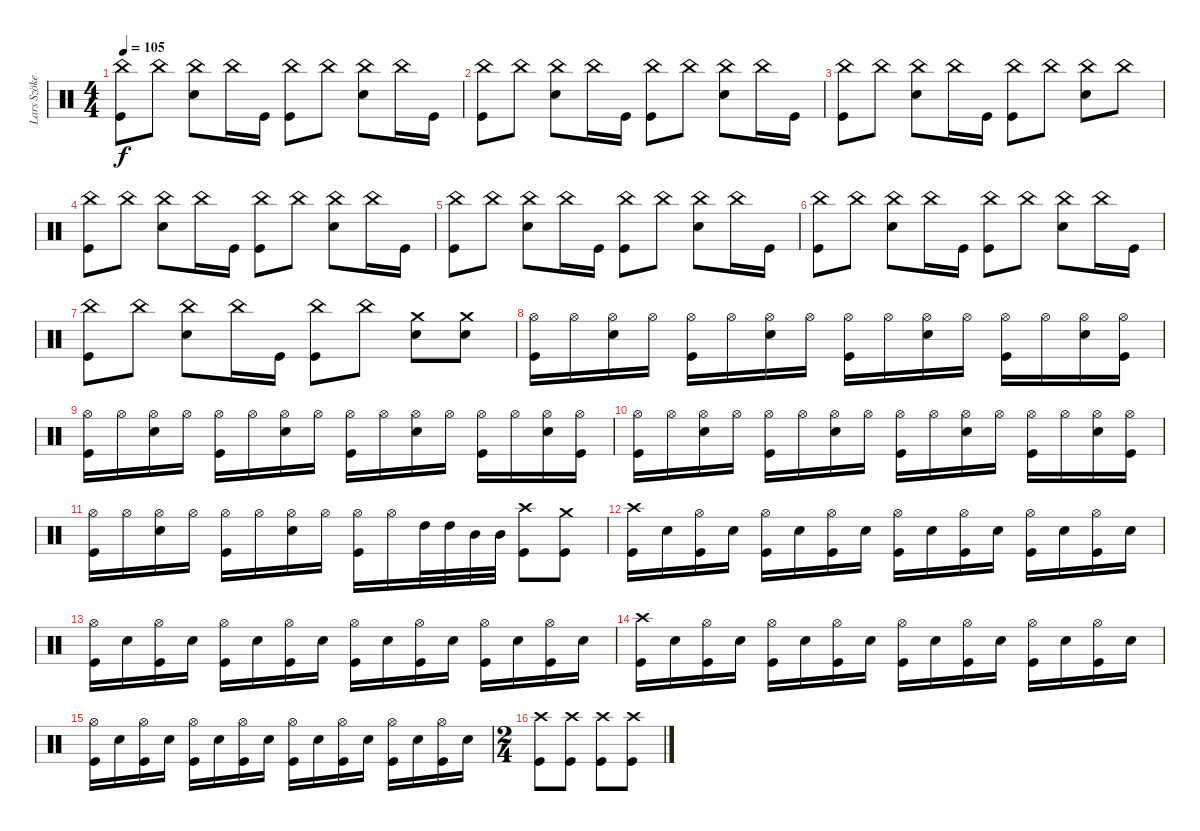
\track ("Lars Szöke" "Lars Szöke") {instrument percussion}
\staff {score}
\articulation defaults
\ts (4 4)
\tempo 105
\clef neutral
\ks c
("China (hit)" "Kick (hit)").8{dy f} "China (hit)".8 ("China (hit)" "Snare (hit) 2").8 "China (hit)".16 "Kick (hit)".16 ("China (hit)" "Kick (hit)").8 "China (hit)".8 ("China (hit)" "Snare (hit) 2").8 "China (hit)".16 "Kick (hit)".16 |
("China (hit)" "Kick (hit)").8 "China (hit)".8 ("China (hit)" "Snare (hit) 2").8 "China (hit)".16 "Kick (hit)".16 ("China (hit)" "Kick (hit)").8 "China (hit)".8 ("China (hit)" "Snare (hit) 2").8 "China (hit)".16 "Kick (hit)".16 |
("China (hit)" "Kick (hit)").8 "China (hit)".8 ("China (hit)" "Snare (hit) 2").8 "China (hit)".16 "Kick (hit)".16 ("China (hit)" "Kick (hit)").8 "China (hit)".8 ("China (hit)" "Snare (hit) 2").8 "China (hit)".8 |
("China (hit)" "Kick (hit)").8 "China (hit)".8 ("China (hit)" "Snare (hit) 2").8 "China (hit)".16 "Kick (hit)".16 ("China (hit)" "Kick (hit)").8 "China (hit)".8 ("China (hit)" "Snare (hit) 2").8 "China (hit)".16 "Kick (hit)".16 |
("China (hit)" "Kick (hit)").8 "China (hit)".8 ("China (hit)" "Snare (hit) 2").8 "China (hit)".16 "Kick (hit)".16 ("China (hit)" "Kick (hit)").8 "China (hit)".8 ("China (hit)" "Snare (hit) 2").8 "China (hit)".16 "Kick (hit)".16 |
("China (hit)" "Kick (hit)").8 "China (hit)".8 ("China (hit)" "Snare (hit) 2").8 "China (hit)".16 "Kick (hit)".16 ("China (hit)" "Kick (hit)").8 "China (hit)".8 ("China (hit)" "Snare (hit) 2").8 "China (hit)".16 "Kick (hit)".16 |
("China (hit)" "Kick (hit)").8 "China (hit)".8 ("China (hit)" "Snare (hit) 2").8 "China (hit)".16 "Kick (hit)".16 ("China (hit)" "Kick (hit)").8 "China (hit)".8 ("Crash medium (hit)" "Snare (hit) 2").8 ("Crash medium (hit)" "Snare (hit) 2").8 |
("Hi-Hat (open)" "Kick (hit)").16 "Hi-Hat (open)".16 ("Hi-Hat (open)" "Snare (hit) 2").16 "Hi-Hat (open)".16 ("Hi-Hat (open)" "Kick (hit)").16 "Hi-Hat (open)".16 ("Hi-Hat (open)" "Snare (hit) 2").16 "Hi-Hat (open)".16 ("Hi-Hat (open)" "Kick (hit)").16 "Hi-Hat (open)".16 ("Hi-Hat (open)" "Snare (hit) 2").16 "Hi-Hat (open)".16 ("Hi-Hat (open)" "Kick (hit)").16 "Hi-Hat (open)".16 ("Hi-Hat (open)" "Snare (hit) 2").16 ("Hi-Hat (open)" "Kick (hit)").16 |
("Hi-Hat (open)" "Kick (hit)").16 "Hi-Hat (open)".16 ("Hi-Hat (open)" "Snare (hit) 2").16 "Hi-Hat (open)".16 ("Hi-Hat (open)" "Kick (hit)").16 "Hi-Hat (open)".16 ("Hi-Hat (open)" "Snare (hit) 2").16 "Hi-Hat (open)".16 ("Hi-Hat (open)" "Kick (hit)").16 "Hi-Hat (open)".16 ("Hi-Hat (open)" "Snare (hit) 2").16 "Hi-Hat (open)".16 ("Hi-Hat (open)" "Kick (hit)").16 "Hi-Hat (open)".16 ("Hi-Hat (open)" "Snare (hit) 2").16 ("Hi-Hat (open)" "Kick (hit)").16 |
("Hi-Hat (open)" "Kick (hit)").16 "Hi-Hat (open)".16 ("Hi-Hat (open)" "Snare (hit) 2").16 "Hi-Hat (open)".16 ("Hi-Hat (open)" "Kick (hit)").16 "Hi-Hat (open)".16 ("Hi-Hat (open)" "Snare (hit) 2").16 "Hi-Hat (open)".16 ("Hi-Hat (open)" "Kick (hit)").16 "Hi-Hat (open)".16 ("Hi-Hat (open)" "Snare (hit) 2").16 "Hi-Hat (open)".16 ("Hi-Hat (open)" "Kick (hit)").16 "Hi-Hat (open)".16 ("Hi-Hat (open)" "Snare (hit) 2").16 ("Hi-Hat (open)" "Kick (hit)").16 |
("Hi-Hat (open)" "Kick (hit)").16 "Hi-Hat (open)".16 ("Hi-Hat (open)" "Snare (hit) 2").16 "Hi-Hat (open)".16 ("Hi-Hat (open)" "Kick (hit)").16 "Hi-Hat (open)".16 ("Hi-Hat (open)" "Snare (hit) 2").16 "Hi-Hat (open)".16 ("Hi-Hat (open)" "Kick (hit)").16 "Hi-Hat (open)".16 "High Tom (hit)".32 "High Tom (hit)".32 "Mid Tom (hit)".32 "Mid Tom (hit)".32 ("Crash high (hit)" "Kick (hit)").8 ("Crash medium (hit)" "Kick (hit)").8 |
("Crash high (hit)" "Kick (hit)").16 "Snare (hit) 2".16 ("Hi-Hat (open)" "Kick (hit)").16 "Snare (hit) 2".16 ("Hi-Hat (open)" "Kick (hit)").16 "Snare (hit) 2".16 ("Hi-Hat (open)" "Kick (hit)").16 "Snare (hit) 2".16 ("Hi-Hat (open)" "Kick (hit)").16 "Snare (hit) 2".16 ("Hi-Hat (open)" "Kick (hit)").16 "Snare (hit) 2".16 ("Hi-Hat (open)" "Kick (hit)").16 "Snare (hit) 2".16 ("Hi-Hat (open)" "Kick (hit)").16 "Snare (hit) 2".16 |
("Hi-Hat (open)" "Kick (hit)").16 "Snare (hit) 2".16 ("Hi-Hat (open)" "Kick (hit)").16 "Snare (hit) 2".16 ("Hi-Hat (open)" "Kick (hit)").16 "Snare (hit) 2".16 ("Hi-Hat (open)" "Kick (hit)").16 "Snare (hit) 2".16 ("Hi-Hat (open)" "Kick (hit)").16 "Snare (hit) 2".16 ("Hi-Hat (open)" "Kick (hit)").16 "Snare (hit) 2".16 ("Hi-Hat (open)" "Kick (hit)").16 "Snare (hit) 2".16 ("Hi-Hat (open)" "Kick (hit)").16 "Snare (hit) 2".16 |
("Crash high (hit)" "Kick (hit)").16 "Snare (hit) 2".16 ("Hi-Hat (open)" "Kick (hit)").16 "Snare (hit) 2".16 ("Hi-Hat (open)" "Kick (hit)").16 "Snare (hit) 2".16 ("Hi-Hat (open)" "Kick (hit)").16 "Snare (hit) 2".16 ("Hi-Hat (open)" "Kick (hit)").16 "Snare (hit) 2".16 ("Hi-Hat (open)" "Kick (hit)").16 "Snare (hit) 2".16 ("Hi-Hat (open)" "Kick (hit)").16 "Snare (hit) 2".16 ("Hi-Hat (open)" "Kick (hit)").16 "Snare (hit) 2".16 |
("Hi-Hat (open)" "Kick (hit)").16 "Snare (hit) 2".16 ("Hi-Hat (open)" "Kick (hit)").16 "Snare (hit) 2".16 ("Hi-Hat (open)" "Kick (hit)").16 "Snare (hit) 2".16 ("Hi-Hat (open)" "Kick (hit)").16 "Snare (hit) 2".16 ("Hi-Hat (open)" "Kick (hit)").16 "Snare (hit) 2".16 ("Hi-Hat (open)" "Kick (hit)").16 "Snare (hit) 2".16 ("Hi-Hat (open)" "Kick (hit)").16 "Snare (hit) 2".16 ("Hi-Hat (open)" "Kick (hit)").16 "Snare (hit) 2".16 |
\ts (2 4)
("Crash high (hit)" "Kick (hit)").8 ("Crash high (hit)" "Kick (hit)").8 ("Crash high (hit)" "Kick (hit)").8 ("Crash high (hit)" "Kick (hit)").8
